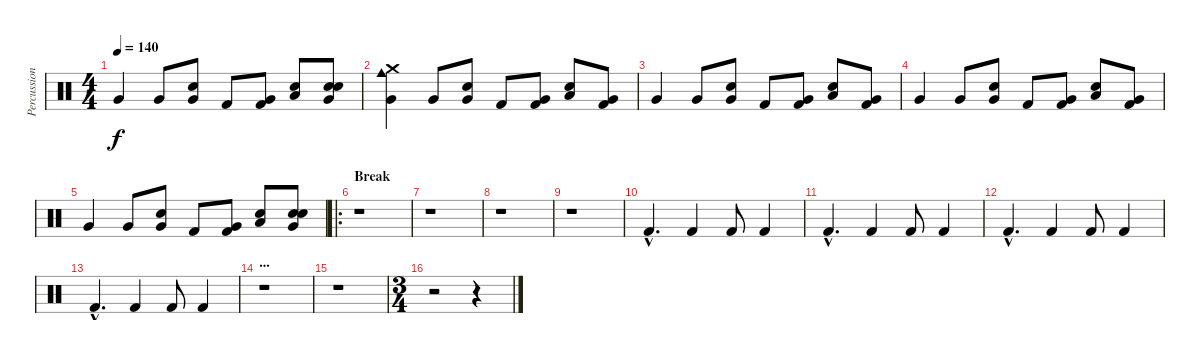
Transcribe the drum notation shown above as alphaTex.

\track ("Percussions" "Percussion") {instrument percussion}
\staff {score}
\articulation defaults
\ts (4 4)
\tempo 140
\clef neutral
\ks c "Very Low Tom (hit)".4{dy f} "Very Low Tom (hit)".8
("Snare (hit) 2" "Very Low Tom (hit)").8 "Kick (hit) 2".8 ("Kick (hit) 2" "Very Low Tom (hit)").8 ("Snare (hit) 2" "Low Tom (hit)").8 ("Snare (hit) 2" "Snare (hit) 2" "Very Low Tom (hit)").8 |
("Cowbell medium (hit)" "Crash medium (hit)" "Very Low Tom (hit)").4 "Very Low Tom (hit)".8 ("Snare (hit) 2" "Very Low Tom (hit)").8 "Kick (hit) 2".8 ("Kick (hit) 2" "Very Low Tom (hit)").8 ("Snare (hit) 2" "Low Tom (hit)").8 ("Kick (hit) 2" "Very Low Tom (hit)").8 |
"Very Low Tom (hit)".4 "Very Low Tom (hit)".8 ("Snare (hit) 2" "Very Low Tom (hit)").8 "Kick (hit) 2".8 ("Kick (hit) 2" "Very Low Tom (hit)").8 ("Snare (hit) 2" "Low Tom (hit)").8 ("Kick (hit) 2" "Very Low Tom (hit)").8 |
"Very Low Tom (hit)".4 "Very Low Tom (hit)".8 ("Snare (hit) 2" "Very Low Tom (hit)").8 "Kick (hit) 2".8 ("Kick (hit) 2" "Very Low Tom (hit)").8 ("Snare (hit) 2" "Low Tom (hit)").8 ("Kick (hit) 2" "Very Low Tom (hit)").8 |
"Very Low Tom (hit)".4 "Very Low Tom (hit)".8 ("Snare (hit) 2" "Very Low Tom (hit)").8 "Kick (hit) 2".8 ("Kick (hit) 2" "Very Low Tom (hit)").8 ("Snare (hit) 2" "Low Tom (hit)").8 ("Snare (hit) 2" "Snare (hit) 2" "Very Low Tom (hit)").8 |
\ro
\section ("" "Break")
r.1 |
r.1 |
r.1 |
r.1 |
"Kick (hit) 2"{hac}.4{d} "Kick (hit) 2".4 "Kick (hit) 2".8 "Kick (hit) 2".4 |
"Kick (hit) 2"{hac}.4{d} "Kick (hit) 2".4 "Kick (hit) 2".8 "Kick (hit) 2".4 |
"Kick (hit) 2"{hac}.4{d} "Kick (hit) 2".4 "Kick (hit) 2".8 "Kick (hit) 2".4 |
"Kick (hit) 2"{hac}.4{d} "Kick (hit) 2".4 "Kick (hit) 2".8 "Kick (hit) 2".4 |
\section ("" "...")
r.1 |
r.1 |
\ts (3 4)
r.2 r.4
